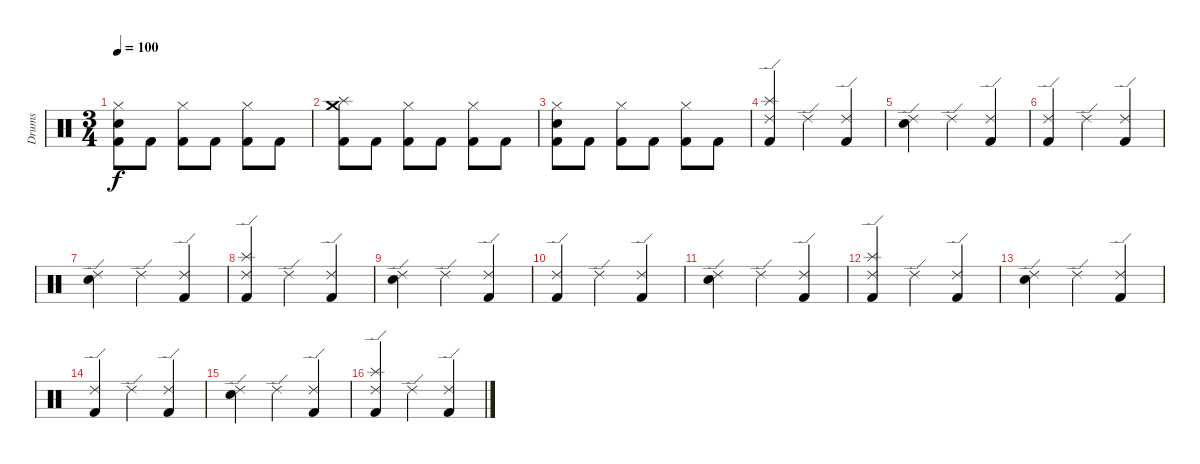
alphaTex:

\track ("Drums" "Drums") {instrument percussion}
\staff {score}
\articulation defaults
\ts (3 4)
\tempo 100
\clef neutral
\ks c
("Hi-Hat (closed)" "Electric Snare (hit)" "Kick (hit) 2").8{dy f} "Kick (hit) 2".8 ("Hi-Hat (closed)" "Kick (hit) 2").8 "Kick (hit) 2".8 ("Hi-Hat (closed)" "Kick (hit) 2").8 "Kick (hit) 2".8 |
("Crash medium (hit)" "Splash (hit)" "Kick (hit) 2").8 "Kick (hit) 2".8 ("Hi-Hat (closed)" "Kick (hit) 2").8 "Kick (hit) 2".8 ("Hi-Hat (closed)" "Kick (hit) 2").8 "Kick (hit) 2".8 |
("Hi-Hat (closed)" "Electric Snare (hit)" "Kick (hit) 2").8 "Kick (hit) 2".8 ("Hi-Hat (closed)" "Kick (hit) 2").8 "Kick (hit) 2".8 ("Hi-Hat (closed)" "Kick (hit) 2").8 "Kick (hit) 2".8 |
("Ride (edge) 2" "Splash (hit)" "Kick (hit) 2").4 "Ride (edge) 2".4 ("Ride (edge) 2" "Kick (hit) 2").4 |
("Ride (edge) 2" "Electric Snare (hit)").4 "Ride (edge) 2".4 ("Ride (edge) 2" "Kick (hit) 2").4 |
("Ride (edge) 2" "Kick (hit) 2").4 "Ride (edge) 2".4 ("Ride (edge) 2" "Kick (hit) 2").4 |
("Ride (edge) 2" "Electric Snare (hit)").4 "Ride (edge) 2".4 ("Ride (edge) 2" "Kick (hit) 2").4 |
("Ride (edge) 2" "Splash (hit)" "Kick (hit) 2").4 "Ride (edge) 2".4 ("Ride (edge) 2" "Kick (hit) 2").4 |
("Ride (edge) 2" "Electric Snare (hit)").4 "Ride (edge) 2".4 ("Ride (edge) 2" "Kick (hit) 2").4 |
("Ride (edge) 2" "Kick (hit) 2").4 "Ride (edge) 2".4 ("Ride (edge) 2" "Kick (hit) 2").4 |
("Ride (edge) 2" "Electric Snare (hit)").4 "Ride (edge) 2".4 ("Ride (edge) 2" "Kick (hit) 2").4 |
("Ride (edge) 2" "Splash (hit)" "Kick (hit) 2").4 "Ride (edge) 2".4 ("Ride (edge) 2" "Kick (hit) 2").4 |
("Ride (edge) 2" "Electric Snare (hit)").4 "Ride (edge) 2".4 ("Ride (edge) 2" "Kick (hit) 2").4 |
("Ride (edge) 2" "Kick (hit) 2").4 "Ride (edge) 2".4 ("Ride (edge) 2" "Kick (hit) 2").4 |
("Ride (edge) 2" "Electric Snare (hit)").4 "Ride (edge) 2".4 ("Ride (edge) 2" "Kick (hit) 2").4 |
("Ride (edge) 2" "Splash (hit)" "Kick (hit) 2").4 "Ride (edge) 2".4 ("Ride (edge) 2" "Kick (hit) 2").4
